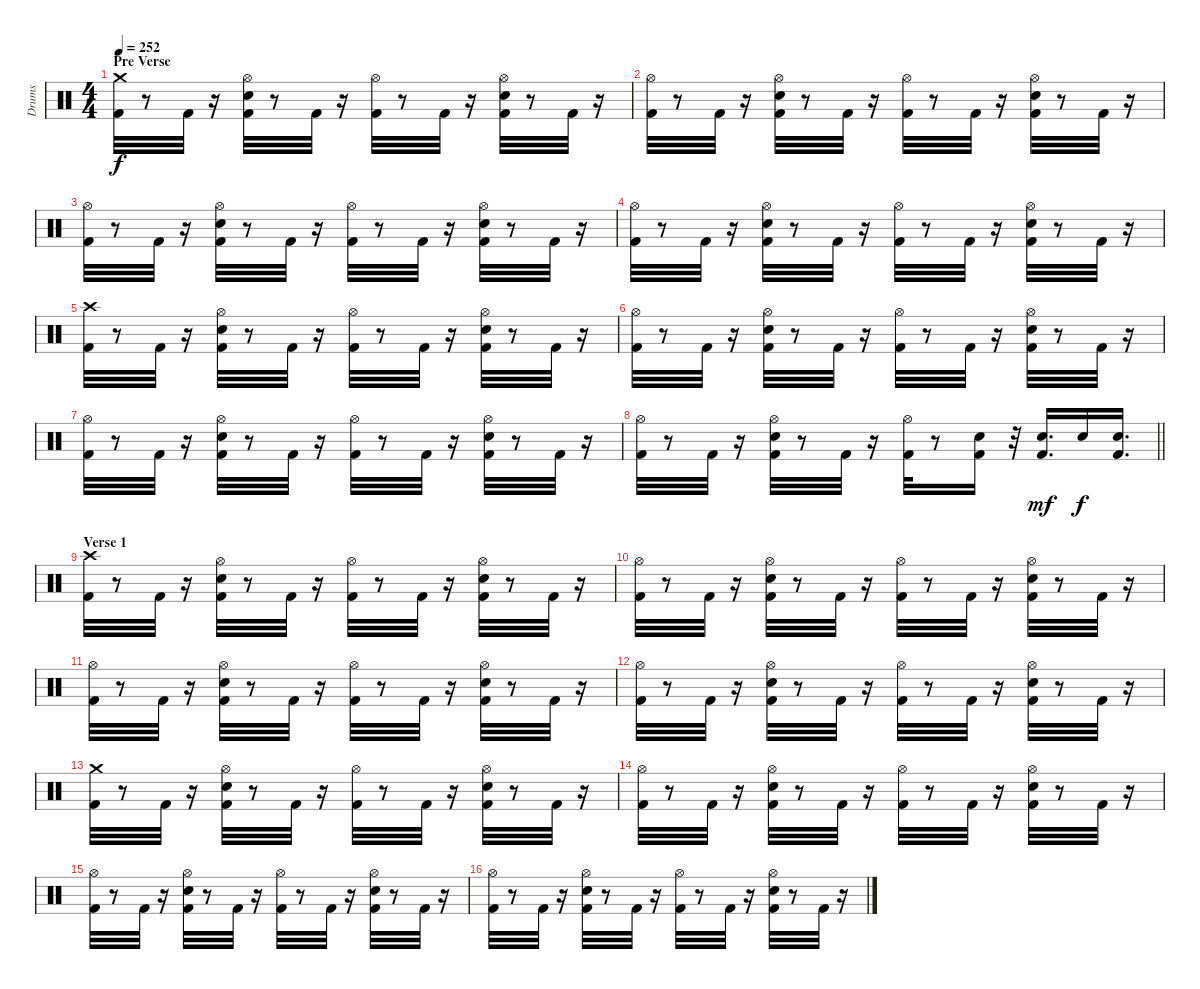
\track ("Drums" "Drums") {instrument percussion}
\staff {score}
\articulation defaults
\ts (4 4)
\section ("" "Pre Verse")
\tempo 252
\clef neutral
\ks c
("Kick (hit) 2" "Crash medium (hit)").32{dy f} r.8 "Kick (hit) 2".32 r.16 ("Snare (hit) 2" "Kick (hit) 2" "Hi-Hat (open)").32 r.8 "Kick (hit) 2".32 r.16 ("Kick (hit) 2" "Hi-Hat (open)").32 r.8 "Kick (hit) 2".32 r.16 ("Snare (hit) 2" "Hi-Hat (open)" "Kick (hit) 2").32 r.8 "Kick (hit) 2".32 r.16 |
("Kick (hit) 2" "Hi-Hat (open)").32 r.8 "Kick (hit) 2".32 r.16 ("Kick (hit) 2" "Hi-Hat (open)" "Snare (hit) 2").32 r.8 "Kick (hit) 2".32 r.16 ("Hi-Hat (open)" "Kick (hit) 2").32 r.8 "Kick (hit) 2".32 r.16 ("Snare (hit) 2" "Kick (hit) 2" "Hi-Hat (open)").32 r.8 "Kick (hit) 2".32 r.16 |
("Kick (hit) 2" "Hi-Hat (open)").32 r.8 "Kick (hit) 2".32 r.16 ("Snare (hit) 2" "Kick (hit) 2" "Hi-Hat (open)").32 r.8 "Kick (hit) 2".32 r.16 ("Hi-Hat (open)" "Kick (hit) 2").32 r.8 "Kick (hit) 2".32 r.16 ("Hi-Hat (open)" "Snare (hit) 2" "Kick (hit) 2").32 r.8 "Kick (hit) 2".32 r.16 |
("Kick (hit) 2" "Hi-Hat (open)").32 r.8 "Kick (hit) 2".32 r.16 ("Snare (hit) 2" "Hi-Hat (open)" "Kick (hit) 2").32 r.8 "Kick (hit) 2".32 r.16 ("Hi-Hat (open)" "Kick (hit) 2").32 r.8 "Kick (hit) 2".32 r.16 ("Hi-Hat (open)" "Snare (hit) 2" "Kick (hit) 2").32 r.8 "Kick (hit) 2".32 r.16 |
("Kick (hit) 2" "Crash high (hit)").32 r.8 "Kick (hit) 2".32 r.16 ("Hi-Hat (open)" "Kick (hit) 2" "Snare (hit) 2").32 r.8 "Kick (hit) 2".32 r.16 ("Hi-Hat (open)" "Kick (hit) 2").32 r.8 "Kick (hit) 2".32 r.16 ("Hi-Hat (open)" "Snare (hit) 2" "Kick (hit) 2").32 r.8 "Kick (hit) 2".32 r.16 |
("Kick (hit) 2" "Hi-Hat (open)").32 r.8 "Kick (hit) 2".32 r.16 ("Kick (hit) 2" "Snare (hit) 2" "Hi-Hat (open)").32 r.8 "Kick (hit) 2".32 r.16 ("Hi-Hat (open)" "Kick (hit) 2").32 r.8 "Kick (hit) 2".32 r.16 ("Hi-Hat (open)" "Snare (hit) 2" "Kick (hit) 2").32 r.8 "Kick (hit) 2".32 r.16 |
("Kick (hit) 2" "Hi-Hat (open)").32 r.8 "Kick (hit) 2".32 r.16 ("Kick (hit) 2" "Snare (hit) 2" "Hi-Hat (open)").32 r.8 "Kick (hit) 2".32 r.16 ("Hi-Hat (open)" "Kick (hit) 2").32 r.8 "Kick (hit) 2".32 r.16 ("Hi-Hat (open)" "Snare (hit) 2" "Kick (hit) 2").32 r.8 "Kick (hit) 2".32 r.16 |
\barLineRight lightlight
("Kick (hit) 2" "Hi-Hat (open)").32 r.8 "Kick (hit) 2".32 r.16 ("Kick (hit) 2" "Snare (hit) 2" "Hi-Hat (open)").32 r.8 "Kick (hit) 2".32 r.16 ("Kick (hit) 2" "Hi-Hat (open)").32 r.8 ("Snare (hit) 2" "Kick (hit) 2").16 r.32 ("Snare (hit) 2" "Kick (hit) 2").16{d dy mf} "Snare (hit) 2".16{dy f} ("Kick (hit) 2" "Snare (hit) 2").16{d} |
\section ("" "Verse 1")
("Crash high (hit)" "Kick (hit) 2").32 r.8 "Kick (hit) 2".32 r.16 ("Snare (hit) 2" "Kick (hit) 2" "Hi-Hat (open)").32 r.8 "Kick (hit) 2".32 r.16 ("Hi-Hat (open)" "Kick (hit) 2").32 r.8 "Kick (hit) 2".32 r.16 ("Snare (hit) 2" "Kick (hit) 2" "Hi-Hat (open)").32 r.8 "Kick (hit) 2".32 r.16 |
("Hi-Hat (open)" "Kick (hit) 2").32 r.8 "Kick (hit) 2".32 r.16 ("Hi-Hat (open)" "Kick (hit) 2" "Snare (hit) 2").32 r.8 "Kick (hit) 2".32 r.16 ("Hi-Hat (open)" "Kick (hit) 2").32 r.8 "Kick (hit) 2".32 r.16 ("Hi-Hat (open)" "Snare (hit) 2" "Kick (hit) 2").32 r.8 "Kick (hit) 2".32 r.16 |
("Hi-Hat (open)" "Kick (hit) 2").32 r.8 "Kick (hit) 2".32 r.16 ("Hi-Hat (open)" "Snare (hit) 2" "Kick (hit) 2").32 r.8 "Kick (hit) 2".32 r.16 ("Kick (hit) 2" "Hi-Hat (open)").32 r.8 "Kick (hit) 2".32 r.16 ("Hi-Hat (open)" "Kick (hit) 2" "Snare (hit) 2").32 r.8 "Kick (hit) 2".32 r.16 |
("Kick (hit) 2" "Hi-Hat (open)").32 r.8 "Kick (hit) 2".32 r.16 ("Hi-Hat (open)" "Snare (hit) 2" "Kick (hit) 2").32 r.8 "Kick (hit) 2".32 r.16 ("Kick (hit) 2" "Hi-Hat (open)").32 r.8 "Kick (hit) 2".32 r.16 ("Snare (hit) 2" "Kick (hit) 2" "Hi-Hat (open)").32 r.8 "Kick (hit) 2".32 r.16 |
("Kick (hit) 2" "Crash medium (hit)").32 r.8 "Kick (hit) 2".32 r.16 ("Snare (hit) 2" "Kick (hit) 2" "Hi-Hat (open)").32 r.8 "Kick (hit) 2".32 r.16 ("Kick (hit) 2" "Hi-Hat (open)").32 r.8 "Kick (hit) 2".32 r.16 ("Hi-Hat (open)" "Kick (hit) 2" "Snare (hit) 2").32 r.8 "Kick (hit) 2".32 r.16 |
("Hi-Hat (open)" "Kick (hit) 2").32 r.8 "Kick (hit) 2".32 r.16 ("Snare (hit) 2" "Hi-Hat (open)" "Kick (hit) 2").32 r.8 "Kick (hit) 2".32 r.16 ("Kick (hit) 2" "Hi-Hat (open)").32 r.8 "Kick (hit) 2".32 r.16 ("Kick (hit) 2" "Hi-Hat (open)" "Snare (hit) 2").32 r.8 "Kick (hit) 2".32 r.16 |
("Kick (hit) 2" "Hi-Hat (open)").32 r.8 "Kick (hit) 2".32 r.16 ("Snare (hit) 2" "Hi-Hat (open)" "Kick (hit) 2").32 r.8 "Kick (hit) 2".32 r.16 ("Kick (hit) 2" "Hi-Hat (open)").32 r.8 "Kick (hit) 2".32 r.16 ("Snare (hit) 2" "Hi-Hat (open)" "Kick (hit) 2").32 r.8 "Kick (hit) 2".32 r.16 |
("Hi-Hat (open)" "Kick (hit) 2").32 r.8 "Kick (hit) 2".32 r.16 ("Kick (hit) 2" "Hi-Hat (open)" "Snare (hit) 2").32 r.8 "Kick (hit) 2".32 r.16 ("Hi-Hat (open)" "Kick (hit) 2").32 r.8 "Kick (hit) 2".32 r.16 ("Kick (hit) 2" "Hi-Hat (open)" "Snare (hit) 2").32 r.8 "Kick (hit) 2".32 r.16
